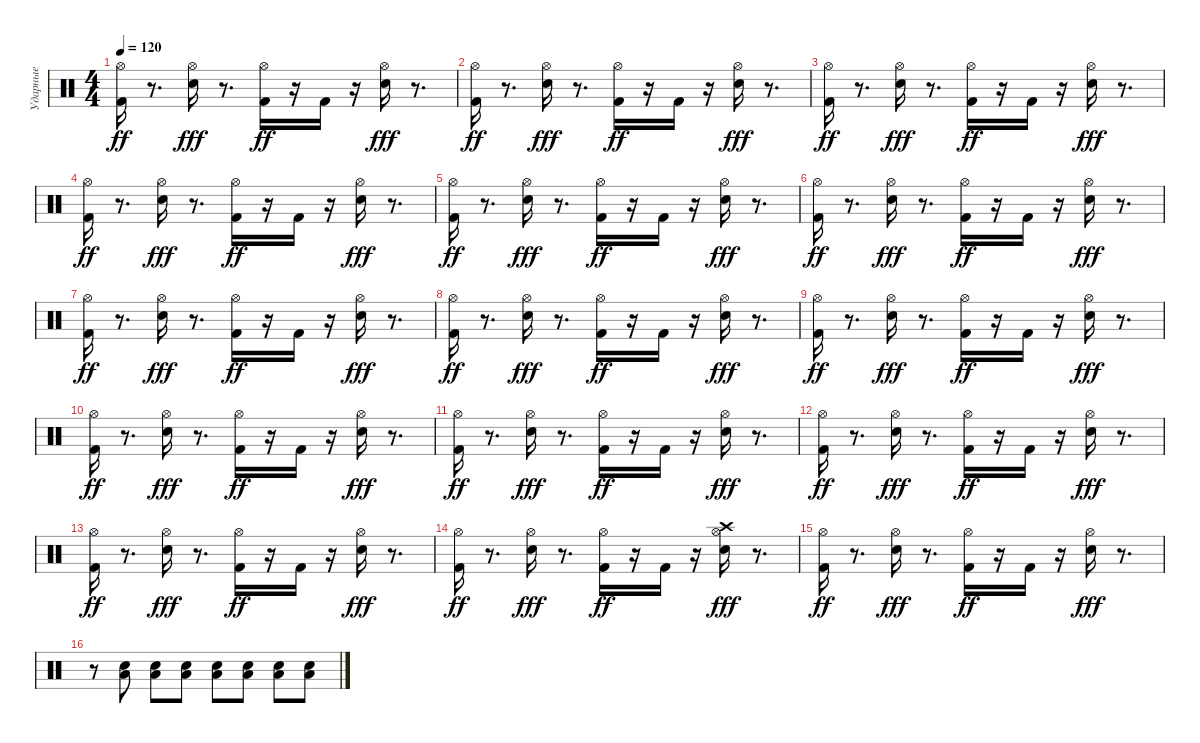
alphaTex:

\track ("Ударные" "Ударные") {instrument percussion}
\staff {score}
\articulation defaults
\ts (4 4)
\tempo 120
\clef neutral
\ks c
("Kick (hit) 2" "Hi-Hat (open)").16{dy ff} r.8{d} ("Snare (hit) 2" "Hi-Hat (open)").16{dy fff} r.8{d} ("Kick (hit) 2" "Hi-Hat (open)").16{dy ff} r.16 "Kick (hit) 2".16 r.16 ("Snare (hit) 2" "Hi-Hat (open)").16{dy fff} r.8{d} |
("Kick (hit) 2" "Hi-Hat (open)").16{dy ff} r.8{d} ("Snare (hit) 2" "Hi-Hat (open)").16{dy fff} r.8{d} ("Kick (hit) 2" "Hi-Hat (open)").16{dy ff} r.16 "Kick (hit) 2".16 r.16 ("Snare (hit) 2" "Hi-Hat (open)").16{dy fff} r.8{d} |
("Kick (hit) 2" "Hi-Hat (open)").16{dy ff} r.8{d} ("Snare (hit) 2" "Hi-Hat (open)").16{dy fff} r.8{d} ("Kick (hit) 2" "Hi-Hat (open)").16{dy ff} r.16 "Kick (hit) 2".16 r.16 ("Snare (hit) 2" "Hi-Hat (open)").16{dy fff} r.8{d} |
("Kick (hit) 2" "Hi-Hat (open)").16{dy ff} r.8{d} ("Snare (hit) 2" "Hi-Hat (open)").16{dy fff} r.8{d} ("Kick (hit) 2" "Hi-Hat (open)").16{dy ff} r.16 "Kick (hit) 2".16 r.16 ("Snare (hit) 2" "Hi-Hat (open)").16{dy fff} r.8{d} |
("Kick (hit) 2" "Hi-Hat (open)").16{dy ff} r.8{d} ("Snare (hit) 2" "Hi-Hat (open)").16{dy fff} r.8{d} ("Kick (hit) 2" "Hi-Hat (open)").16{dy ff} r.16 "Kick (hit) 2".16 r.16 ("Snare (hit) 2" "Hi-Hat (open)").16{dy fff} r.8{d} |
("Kick (hit) 2" "Hi-Hat (open)").16{dy ff} r.8{d} ("Snare (hit) 2" "Hi-Hat (open)").16{dy fff} r.8{d} ("Kick (hit) 2" "Hi-Hat (open)").16{dy ff} r.16 "Kick (hit) 2".16 r.16 ("Snare (hit) 2" "Hi-Hat (open)").16{dy fff} r.8{d} |
("Kick (hit) 2" "Hi-Hat (open)").16{dy ff} r.8{d} ("Snare (hit) 2" "Hi-Hat (open)").16{dy fff} r.8{d} ("Kick (hit) 2" "Hi-Hat (open)").16{dy ff} r.16 "Kick (hit) 2".16 r.16 ("Snare (hit) 2" "Hi-Hat (open)").16{dy fff} r.8{d} |
("Kick (hit) 2" "Hi-Hat (open)").16{dy ff} r.8{d} ("Snare (hit) 2" "Hi-Hat (open)").16{dy fff} r.8{d} ("Kick (hit) 2" "Hi-Hat (open)").16{dy ff} r.16 "Kick (hit) 2".16 r.16 ("Snare (hit) 2" "Hi-Hat (open)").16{dy fff} r.8{d} |
("Kick (hit) 2" "Hi-Hat (open)").16{dy ff} r.8{d} ("Snare (hit) 2" "Hi-Hat (open)").16{dy fff} r.8{d} ("Kick (hit) 2" "Hi-Hat (open)").16{dy ff} r.16 "Kick (hit) 2".16 r.16 ("Snare (hit) 2" "Hi-Hat (open)").16{dy fff} r.8{d} |
("Kick (hit) 2" "Hi-Hat (open)").16{dy ff} r.8{d} ("Snare (hit) 2" "Hi-Hat (open)").16{dy fff} r.8{d} ("Kick (hit) 2" "Hi-Hat (open)").16{dy ff} r.16 "Kick (hit) 2".16 r.16 ("Snare (hit) 2" "Hi-Hat (open)").16{dy fff} r.8{d} |
("Kick (hit) 2" "Hi-Hat (open)").16{dy ff} r.8{d} ("Snare (hit) 2" "Hi-Hat (open)").16{dy fff} r.8{d} ("Kick (hit) 2" "Hi-Hat (open)").16{dy ff} r.16 "Kick (hit) 2".16 r.16 ("Snare (hit) 2" "Hi-Hat (open)").16{dy fff} r.8{d} |
("Kick (hit) 2" "Hi-Hat (open)").16{dy ff} r.8{d} ("Snare (hit) 2" "Hi-Hat (open)").16{dy fff} r.8{d} ("Kick (hit) 2" "Hi-Hat (open)").16{dy ff} r.16 "Kick (hit) 2".16 r.16 ("Snare (hit) 2" "Hi-Hat (open)").16{dy fff} r.8{d} |
("Kick (hit) 2" "Hi-Hat (open)").16{dy ff} r.8{d} ("Snare (hit) 2" "Hi-Hat (open)").16{dy fff} r.8{d} ("Kick (hit) 2" "Hi-Hat (open)").16{dy ff} r.16 "Kick (hit) 2".16 r.16 ("Snare (hit) 2" "Hi-Hat (open)").16{dy fff} r.8{d} |
("Kick (hit) 2" "Hi-Hat (open)").16{dy ff} r.8{d} ("Snare (hit) 2" "Hi-Hat (open)").16{dy fff} r.8{d} ("Kick (hit) 2" "Hi-Hat (open)").16{dy ff} r.16 "Kick (hit) 2".16 r.16 ("Snare (hit) 2" "Hi-Hat (open)" "Crash high (hit)").16{dy fff} r.8{d} |
("Kick (hit) 2" "Hi-Hat (open)").16{dy ff} r.8{d} ("Snare (hit) 2" "Hi-Hat (open)").16{dy fff} r.8{d} ("Kick (hit) 2" "Hi-Hat (open)").16{dy ff} r.16 "Kick (hit) 2".16 r.16 ("Snare (hit) 2" "Hi-Hat (open)").16{dy fff} r.8{d} |
r.8 ("Snare (hit) 2" "Low Floor Tom (hit)").8 ("Snare (hit) 2" "Low Floor Tom (hit)").8 ("Snare (hit) 2" "Low Floor Tom (hit)").8 ("Snare (hit) 2" "Low Floor Tom (hit)").8 ("Snare (hit) 2" "Low Floor Tom (hit)").8 ("Snare (hit) 2" "Low Floor Tom (hit)").8 ("Snare (hit) 2" "Low Floor Tom (hit)").8
